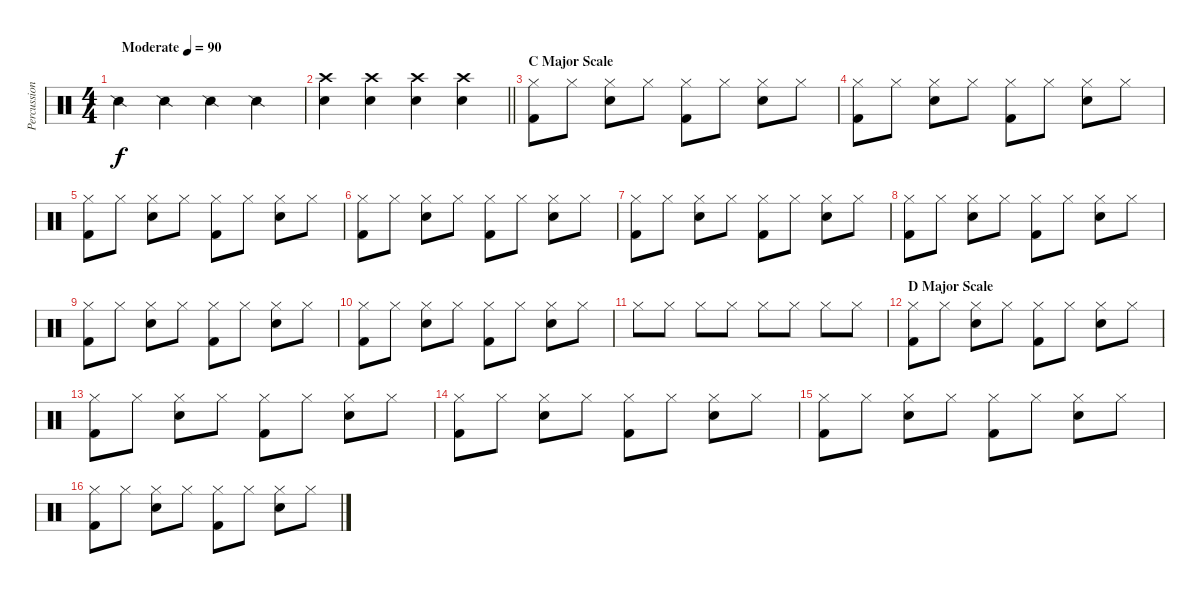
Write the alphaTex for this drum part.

\track ("Percussion" "Percussion") {instrument percussion}
\staff {score}
\articulation defaults
\ts (4 4)
\tempo (90 "Moderate")
\clef neutral
\ks c "Snare (side stick) 2".4{dy f} "Snare (side stick) 2".4 "Snare (side stick) 2".4 "Snare (side stick) 2".4
|
\barLineRight lightlight
("Crash high (hit)" "Snare (hit) 2").4 ("Crash high (hit)" "Snare (hit) 2").4 ("Crash high (hit)" "Snare (hit) 2").4 ("Crash high (hit)" "Snare (hit) 2").4 |
\section ("" "C Major Scale")
("Kick (hit) 2" "Hi-Hat (closed)").8 "Hi-Hat (closed)".8 ("Snare (hit) 2" "Hi-Hat (closed)").8 "Hi-Hat (closed)".8 ("Kick (hit) 2" "Hi-Hat (closed)").8 "Hi-Hat (closed)".8 ("Snare (hit) 2" "Hi-Hat (closed)").8 "Hi-Hat (closed)".8 |
("Kick (hit) 2" "Hi-Hat (closed)").8 "Hi-Hat (closed)".8 ("Snare (hit) 2" "Hi-Hat (closed)").8 "Hi-Hat (closed)".8 ("Kick (hit) 2" "Hi-Hat (closed)").8 "Hi-Hat (closed)".8 ("Snare (hit) 2" "Hi-Hat (closed)").8 "Hi-Hat (closed)".8 |
("Kick (hit) 2" "Hi-Hat (closed)").8 "Hi-Hat (closed)".8 ("Snare (hit) 2" "Hi-Hat (closed)").8 "Hi-Hat (closed)".8 ("Kick (hit) 2" "Hi-Hat (closed)").8 "Hi-Hat (closed)".8 ("Snare (hit) 2" "Hi-Hat (closed)").8 "Hi-Hat (closed)".8 |
("Kick (hit) 2" "Hi-Hat (closed)").8 "Hi-Hat (closed)".8 ("Snare (hit) 2" "Hi-Hat (closed)").8 "Hi-Hat (closed)".8 ("Kick (hit) 2" "Hi-Hat (closed)").8 "Hi-Hat (closed)".8 ("Snare (hit) 2" "Hi-Hat (closed)").8 "Hi-Hat (closed)".8 |
("Kick (hit) 2" "Hi-Hat (closed)").8 "Hi-Hat (closed)".8 ("Snare (hit) 2" "Hi-Hat (closed)").8 "Hi-Hat (closed)".8 ("Kick (hit) 2" "Hi-Hat (closed)").8 "Hi-Hat (closed)".8 ("Snare (hit) 2" "Hi-Hat (closed)").8 "Hi-Hat (closed)".8 |
("Kick (hit) 2" "Hi-Hat (closed)").8 "Hi-Hat (closed)".8 ("Snare (hit) 2" "Hi-Hat (closed)").8 "Hi-Hat (closed)".8 ("Kick (hit) 2" "Hi-Hat (closed)").8 "Hi-Hat (closed)".8 ("Snare (hit) 2" "Hi-Hat (closed)").8 "Hi-Hat (closed)".8 |
("Kick (hit) 2" "Hi-Hat (closed)").8 "Hi-Hat (closed)".8 ("Snare (hit) 2" "Hi-Hat (closed)").8 "Hi-Hat (closed)".8 ("Kick (hit) 2" "Hi-Hat (closed)").8 "Hi-Hat (closed)".8 ("Snare (hit) 2" "Hi-Hat (closed)").8 "Hi-Hat (closed)".8 |
("Kick (hit) 2" "Hi-Hat (closed)").8 "Hi-Hat (closed)".8 ("Snare (hit) 2" "Hi-Hat (closed)").8 "Hi-Hat (closed)".8 ("Kick (hit) 2" "Hi-Hat (closed)").8 "Hi-Hat (closed)".8 ("Snare (hit) 2" "Hi-Hat (closed)").8 "Hi-Hat (closed)".8 |
"Hi-Hat (closed)".8 "Hi-Hat (closed)".8 "Hi-Hat (closed)".8 "Hi-Hat (closed)".8 "Hi-Hat (closed)".8 "Hi-Hat (closed)".8 "Hi-Hat (closed)".8 "Hi-Hat (closed)".8 |
\section ("" "D Major Scale")
("Kick (hit) 2" "Hi-Hat (closed)").8 "Hi-Hat (closed)".8 ("Snare (hit) 2" "Hi-Hat (closed)").8 "Hi-Hat (closed)".8 ("Kick (hit) 2" "Hi-Hat (closed)").8 "Hi-Hat (closed)".8 ("Snare (hit) 2" "Hi-Hat (closed)").8 "Hi-Hat (closed)".8 |
("Kick (hit) 2" "Hi-Hat (closed)").8 "Hi-Hat (closed)".8 ("Snare (hit) 2" "Hi-Hat (closed)").8 "Hi-Hat (closed)".8 ("Kick (hit) 2" "Hi-Hat (closed)").8 "Hi-Hat (closed)".8 ("Snare (hit) 2" "Hi-Hat (closed)").8 "Hi-Hat (closed)".8 |
("Kick (hit) 2" "Hi-Hat (closed)").8 "Hi-Hat (closed)".8 ("Snare (hit) 2" "Hi-Hat (closed)").8 "Hi-Hat (closed)".8 ("Kick (hit) 2" "Hi-Hat (closed)").8 "Hi-Hat (closed)".8 ("Snare (hit) 2" "Hi-Hat (closed)").8 "Hi-Hat (closed)".8 |
("Kick (hit) 2" "Hi-Hat (closed)").8 "Hi-Hat (closed)".8 ("Snare (hit) 2" "Hi-Hat (closed)").8 "Hi-Hat (closed)".8 ("Kick (hit) 2" "Hi-Hat (closed)").8 "Hi-Hat (closed)".8 ("Snare (hit) 2" "Hi-Hat (closed)").8 "Hi-Hat (closed)".8 |
("Kick (hit) 2" "Hi-Hat (closed)").8 "Hi-Hat (closed)".8 ("Snare (hit) 2" "Hi-Hat (closed)").8 "Hi-Hat (closed)".8 ("Kick (hit) 2" "Hi-Hat (closed)").8 "Hi-Hat (closed)".8 ("Snare (hit) 2" "Hi-Hat (closed)").8 "Hi-Hat (closed)".8
